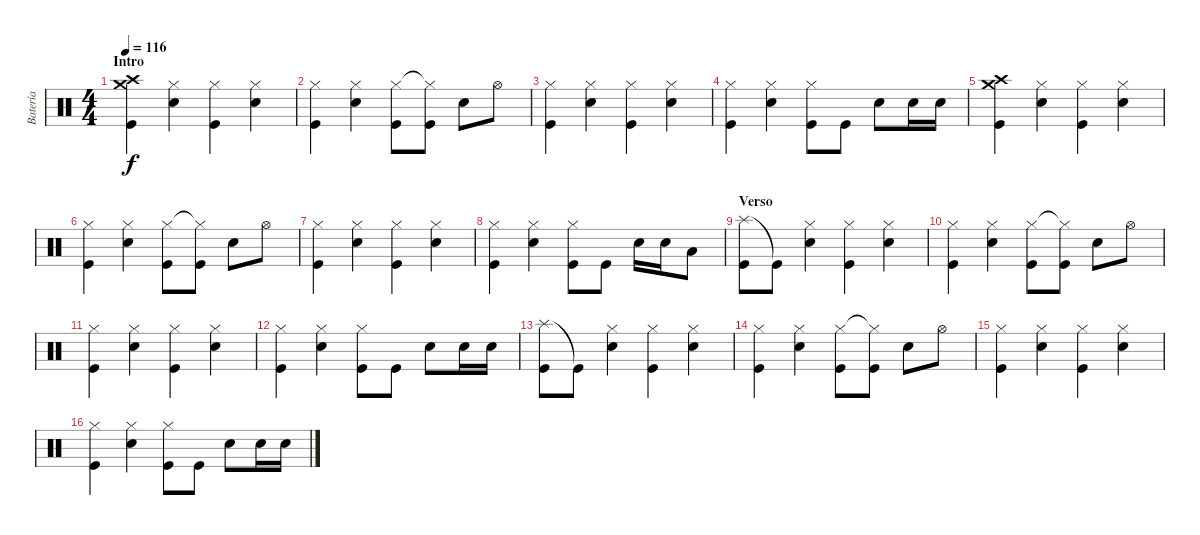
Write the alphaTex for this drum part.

\track ("Batería" "Batería") {instrument percussion}
\staff {score}
\articulation defaults
\ts (4 4)
\section ("" "Intro")
\tempo 116
\clef neutral
\ks c
("Crash medium (hit)" "Crash high (hit)" "Kick (hit)").4{dy f} ("Hi-Hat (closed)" "Snare (hit) 2").4 ("Hi-Hat (closed)" "Kick (hit)").4 ("Hi-Hat (closed)" "Snare (hit) 2").4 |
("Hi-Hat (closed)" "Kick (hit)").4 ("Hi-Hat (closed)" "Snare (hit) 2").4 ("Hi-Hat (closed)" "Kick (hit)").8 ("Hi-Hat (closed)"{t} "Kick (hit)").8 "Snare (hit) 2".8 "Hi-Hat (open)".8 |
("Hi-Hat (closed)" "Kick (hit)").4 ("Hi-Hat (closed)" "Snare (hit) 2").4 ("Hi-Hat (closed)" "Kick (hit)").4 ("Hi-Hat (closed)" "Snare (hit) 2").4 |
("Hi-Hat (closed)" "Kick (hit)").4 ("Hi-Hat (closed)" "Snare (hit) 2").4 ("Hi-Hat (closed)" "Kick (hit)").8 "Kick (hit)".8 "Snare (hit) 2".8 "Snare (hit) 2".16 "Snare (hit) 2".16 |
("Crash medium (hit)" "Crash high (hit)" "Kick (hit)").4 ("Hi-Hat (closed)" "Snare (hit) 2").4 ("Hi-Hat (closed)" "Kick (hit)").4 ("Hi-Hat (closed)" "Snare (hit) 2").4 |
("Hi-Hat (closed)" "Kick (hit)").4 ("Hi-Hat (closed)" "Snare (hit) 2").4 ("Hi-Hat (closed)" "Kick (hit)").8 ("Hi-Hat (closed)"{t} "Kick (hit)").8 "Snare (hit) 2".8 "Hi-Hat (open)".8 |
("Hi-Hat (closed)" "Kick (hit)").4 ("Hi-Hat (closed)" "Snare (hit) 2").4 ("Hi-Hat (closed)" "Kick (hit)").4 ("Hi-Hat (closed)" "Snare (hit) 2").4 |
("Hi-Hat (closed)" "Kick (hit)").4 ("Hi-Hat (closed)" "Snare (hit) 2").4 ("Hi-Hat (closed)" "Kick (hit)").8 "Kick (hit)".8 "Snare (hit) 2".16 "Snare (hit) 2".16 "Low Tom (hit)".8 |
\section ("" "Verso")
("Splash (hit)" "Kick (hit)").8 "Kick (hit)"{t}.8 ("Hi-Hat (closed)" "Snare (hit) 2").4 ("Hi-Hat (closed)" "Kick (hit)").4 ("Hi-Hat (closed)" "Snare (hit) 2").4 |
("Hi-Hat (closed)" "Kick (hit)").4 ("Hi-Hat (closed)" "Snare (hit) 2").4 ("Hi-Hat (closed)" "Kick (hit)").8 ("Hi-Hat (closed)"{t} "Kick (hit)").8 "Snare (hit) 2".8 "Hi-Hat (open)".8 |
("Hi-Hat (closed)" "Kick (hit)").4 ("Hi-Hat (closed)" "Snare (hit) 2").4 ("Hi-Hat (closed)" "Kick (hit)").4 ("Hi-Hat (closed)" "Snare (hit) 2").4 |
("Hi-Hat (closed)" "Kick (hit)").4 ("Hi-Hat (closed)" "Snare (hit) 2").4 ("Hi-Hat (closed)" "Kick (hit)").8 "Kick (hit)".8 "Snare (hit) 2".8 "Snare (hit) 2".16 "Snare (hit) 2".16 |
("Splash (hit)" "Kick (hit)").8 "Kick (hit)"{t}.8 ("Hi-Hat (closed)" "Snare (hit) 2").4 ("Hi-Hat (closed)" "Kick (hit)").4 ("Hi-Hat (closed)" "Snare (hit) 2").4 |
("Hi-Hat (closed)" "Kick (hit)").4 ("Hi-Hat (closed)" "Snare (hit) 2").4 ("Hi-Hat (closed)" "Kick (hit)").8 ("Hi-Hat (closed)"{t} "Kick (hit)").8 "Snare (hit) 2".8 "Hi-Hat (open)".8 |
("Hi-Hat (closed)" "Kick (hit)").4 ("Hi-Hat (closed)" "Snare (hit) 2").4 ("Hi-Hat (closed)" "Kick (hit)").4 ("Hi-Hat (closed)" "Snare (hit) 2").4 |
("Hi-Hat (closed)" "Kick (hit)").4 ("Hi-Hat (closed)" "Snare (hit) 2").4 ("Hi-Hat (closed)" "Kick (hit)").8 "Kick (hit)".8 "Snare (hit) 2".8 "Snare (hit) 2".16 "Snare (hit) 2".16
